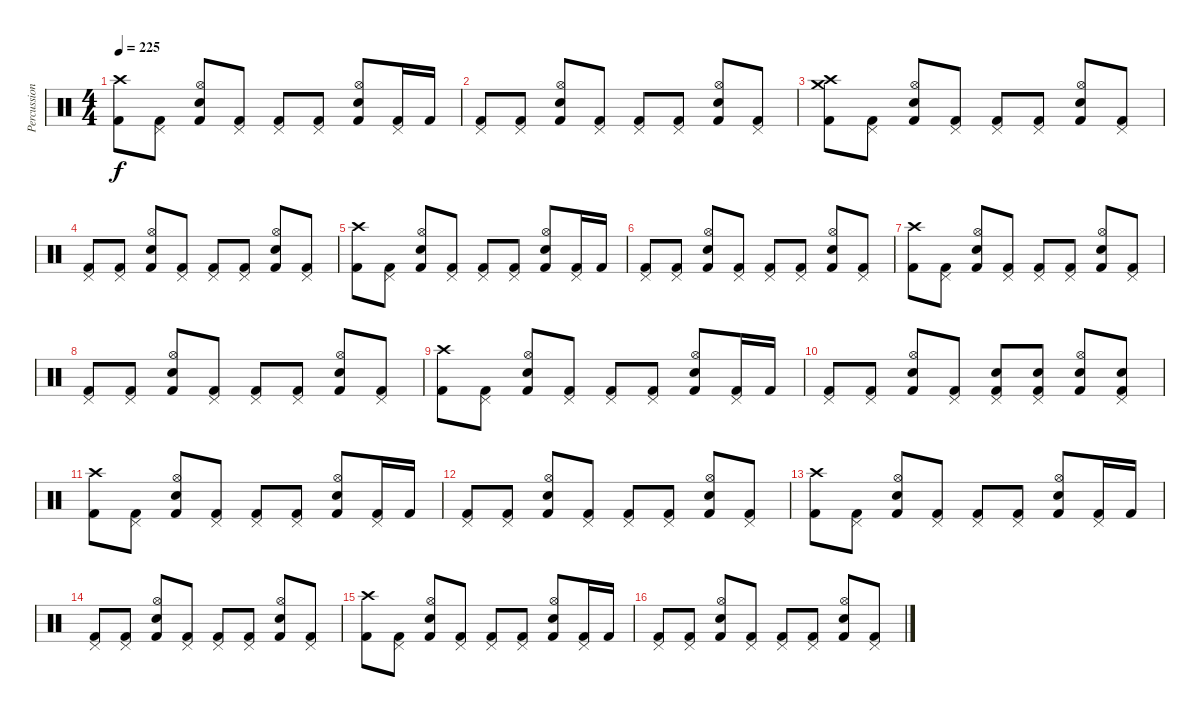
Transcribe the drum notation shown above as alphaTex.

\track ("Percussion" "Percussion") {instrument percussion}
\staff {score}
\articulation defaults
\ts (4 4)
\tempo 225
\clef neutral
\ks c
("Crash high (hit)" "Kick (hit) 2").8{dy f} ("Pedal Hi-Hat (hit)" "Kick (hit) 2").8 ("Hi-Hat (open)" "Electric Snare (hit)" "Kick (hit) 2").8 ("Pedal Hi-Hat (hit)" "Kick (hit) 2").8 ("Pedal Hi-Hat (hit)" "Kick (hit) 2").8 ("Pedal Hi-Hat (hit)" "Kick (hit) 2").8 ("Hi-Hat (open)" "Electric Snare (hit)" "Kick (hit) 2").8 ("Pedal Hi-Hat (hit)" "Kick (hit) 2").16 "Kick (hit) 2".16 |
("Pedal Hi-Hat (hit)" "Kick (hit) 2").8 ("Pedal Hi-Hat (hit)" "Kick (hit) 2").8 ("Hi-Hat (open)" "Electric Snare (hit)" "Kick (hit) 2").8 ("Pedal Hi-Hat (hit)" "Kick (hit) 2").8 ("Pedal Hi-Hat (hit)" "Kick (hit) 2").8 ("Pedal Hi-Hat (hit)" "Kick (hit) 2").8 ("Hi-Hat (open)" "Electric Snare (hit)" "Kick (hit) 2").8 ("Pedal Hi-Hat (hit)" "Kick (hit) 2").8 |
("Crash high (hit)" "Crash medium (hit)" "Kick (hit) 2").8 ("Pedal Hi-Hat (hit)" "Kick (hit) 2").8 ("Hi-Hat (open)" "Electric Snare (hit)" "Kick (hit) 2").8 ("Pedal Hi-Hat (hit)" "Kick (hit) 2").8 ("Pedal Hi-Hat (hit)" "Kick (hit) 2").8 ("Pedal Hi-Hat (hit)" "Kick (hit) 2").8 ("Hi-Hat (open)" "Electric Snare (hit)" "Kick (hit) 2").8 ("Pedal Hi-Hat (hit)" "Kick (hit) 2").8 |
("Pedal Hi-Hat (hit)" "Kick (hit) 2").8 ("Pedal Hi-Hat (hit)" "Kick (hit) 2").8 ("Hi-Hat (open)" "Electric Snare (hit)" "Kick (hit) 2").8 ("Pedal Hi-Hat (hit)" "Kick (hit) 2").8 ("Pedal Hi-Hat (hit)" "Kick (hit) 2").8 ("Pedal Hi-Hat (hit)" "Kick (hit) 2").8 ("Hi-Hat (open)" "Electric Snare (hit)" "Kick (hit) 2").8 ("Pedal Hi-Hat (hit)" "Kick (hit) 2").8 |
("Crash high (hit)" "Kick (hit) 2").8 ("Pedal Hi-Hat (hit)" "Kick (hit) 2").8 ("Hi-Hat (open)" "Electric Snare (hit)" "Kick (hit) 2").8 ("Pedal Hi-Hat (hit)" "Kick (hit) 2").8 ("Pedal Hi-Hat (hit)" "Kick (hit) 2").8 ("Pedal Hi-Hat (hit)" "Kick (hit) 2").8 ("Hi-Hat (open)" "Electric Snare (hit)" "Kick (hit) 2").8 ("Pedal Hi-Hat (hit)" "Kick (hit) 2").16 "Kick (hit) 2".16 |
("Pedal Hi-Hat (hit)" "Kick (hit) 2").8 ("Pedal Hi-Hat (hit)" "Kick (hit) 2").8 ("Hi-Hat (open)" "Electric Snare (hit)" "Kick (hit) 2").8 ("Pedal Hi-Hat (hit)" "Kick (hit) 2").8 ("Pedal Hi-Hat (hit)" "Kick (hit) 2").8 ("Pedal Hi-Hat (hit)" "Kick (hit) 2").8 ("Hi-Hat (open)" "Electric Snare (hit)" "Kick (hit) 2").8 ("Pedal Hi-Hat (hit)" "Kick (hit) 2").8 |
("Crash high (hit)" "Kick (hit) 2").8 ("Pedal Hi-Hat (hit)" "Kick (hit) 2").8 ("Hi-Hat (open)" "Electric Snare (hit)" "Kick (hit) 2").8 ("Pedal Hi-Hat (hit)" "Kick (hit) 2").8 ("Pedal Hi-Hat (hit)" "Kick (hit) 2").8 ("Pedal Hi-Hat (hit)" "Kick (hit) 2").8 ("Hi-Hat (open)" "Electric Snare (hit)" "Kick (hit) 2").8 ("Pedal Hi-Hat (hit)" "Kick (hit) 2").8 |
("Pedal Hi-Hat (hit)" "Kick (hit) 2").8 ("Pedal Hi-Hat (hit)" "Kick (hit) 2").8 ("Hi-Hat (open)" "Electric Snare (hit)" "Kick (hit) 2").8 ("Pedal Hi-Hat (hit)" "Kick (hit) 2").8 ("Pedal Hi-Hat (hit)" "Kick (hit) 2").8 ("Pedal Hi-Hat (hit)" "Kick (hit) 2").8 ("Hi-Hat (open)" "Electric Snare (hit)" "Kick (hit) 2").8 ("Pedal Hi-Hat (hit)" "Kick (hit) 2").8 |
("Crash high (hit)" "Kick (hit) 2").8 ("Pedal Hi-Hat (hit)" "Kick (hit) 2").8 ("Hi-Hat (open)" "Electric Snare (hit)" "Kick (hit) 2").8 ("Pedal Hi-Hat (hit)" "Kick (hit) 2").8 ("Pedal Hi-Hat (hit)" "Kick (hit) 2").8 ("Pedal Hi-Hat (hit)" "Kick (hit) 2").8 ("Hi-Hat (open)" "Electric Snare (hit)" "Kick (hit) 2").8 ("Pedal Hi-Hat (hit)" "Kick (hit) 2").16 "Kick (hit) 2".16 |
("Pedal Hi-Hat (hit)" "Kick (hit) 2").8 ("Pedal Hi-Hat (hit)" "Kick (hit) 2").8 ("Hi-Hat (open)" "Electric Snare (hit)" "Kick (hit) 2").8 ("Pedal Hi-Hat (hit)" "Kick (hit) 2").8 ("Pedal Hi-Hat (hit)" "Electric Snare (hit)" "Kick (hit) 2").8 ("Pedal Hi-Hat (hit)" "Electric Snare (hit)" "Kick (hit) 2").8 ("Hi-Hat (open)" "Electric Snare (hit)" "Kick (hit) 2").8 ("Pedal Hi-Hat (hit)" "Electric Snare (hit)" "Kick (hit) 2").8 |
("Crash high (hit)" "Kick (hit) 2").8 ("Pedal Hi-Hat (hit)" "Kick (hit) 2").8 ("Hi-Hat (open)" "Electric Snare (hit)" "Kick (hit) 2").8 ("Pedal Hi-Hat (hit)" "Kick (hit) 2").8 ("Pedal Hi-Hat (hit)" "Kick (hit) 2").8 ("Pedal Hi-Hat (hit)" "Kick (hit) 2").8 ("Hi-Hat (open)" "Electric Snare (hit)" "Kick (hit) 2").8 ("Pedal Hi-Hat (hit)" "Kick (hit) 2").16 "Kick (hit) 2".16 |
("Pedal Hi-Hat (hit)" "Kick (hit) 2").8 ("Pedal Hi-Hat (hit)" "Kick (hit) 2").8 ("Hi-Hat (open)" "Electric Snare (hit)" "Kick (hit) 2").8 ("Pedal Hi-Hat (hit)" "Kick (hit) 2").8 ("Pedal Hi-Hat (hit)" "Kick (hit) 2").8 ("Pedal Hi-Hat (hit)" "Kick (hit) 2").8 ("Hi-Hat (open)" "Electric Snare (hit)" "Kick (hit) 2").8 ("Pedal Hi-Hat (hit)" "Kick (hit) 2").8 |
("Crash high (hit)" "Kick (hit) 2").8 ("Pedal Hi-Hat (hit)" "Kick (hit) 2").8 ("Hi-Hat (open)" "Electric Snare (hit)" "Kick (hit) 2").8 ("Pedal Hi-Hat (hit)" "Kick (hit) 2").8 ("Pedal Hi-Hat (hit)" "Kick (hit) 2").8 ("Pedal Hi-Hat (hit)" "Kick (hit) 2").8 ("Hi-Hat (open)" "Electric Snare (hit)" "Kick (hit) 2").8 ("Pedal Hi-Hat (hit)" "Kick (hit) 2").16 "Kick (hit) 2".16 |
("Pedal Hi-Hat (hit)" "Kick (hit) 2").8 ("Pedal Hi-Hat (hit)" "Kick (hit) 2").8 ("Hi-Hat (open)" "Electric Snare (hit)" "Kick (hit) 2").8 ("Pedal Hi-Hat (hit)" "Kick (hit) 2").8 ("Pedal Hi-Hat (hit)" "Kick (hit) 2").8 ("Pedal Hi-Hat (hit)" "Kick (hit) 2").8 ("Hi-Hat (open)" "Electric Snare (hit)" "Kick (hit) 2").8 ("Pedal Hi-Hat (hit)" "Kick (hit) 2").8 |
("Crash high (hit)" "Kick (hit) 2").8 ("Pedal Hi-Hat (hit)" "Kick (hit) 2").8 ("Hi-Hat (open)" "Electric Snare (hit)" "Kick (hit) 2").8 ("Pedal Hi-Hat (hit)" "Kick (hit) 2").8 ("Pedal Hi-Hat (hit)" "Kick (hit) 2").8 ("Pedal Hi-Hat (hit)" "Kick (hit) 2").8 ("Hi-Hat (open)" "Electric Snare (hit)" "Kick (hit) 2").8 ("Pedal Hi-Hat (hit)" "Kick (hit) 2").16 "Kick (hit) 2".16 |
("Pedal Hi-Hat (hit)" "Kick (hit) 2").8 ("Pedal Hi-Hat (hit)" "Kick (hit) 2").8 ("Hi-Hat (open)" "Electric Snare (hit)" "Kick (hit) 2").8 ("Pedal Hi-Hat (hit)" "Kick (hit) 2").8 ("Pedal Hi-Hat (hit)" "Kick (hit) 2").8 ("Pedal Hi-Hat (hit)" "Kick (hit) 2").8 ("Hi-Hat (open)" "Electric Snare (hit)" "Kick (hit) 2").8 ("Pedal Hi-Hat (hit)" "Kick (hit) 2").8
